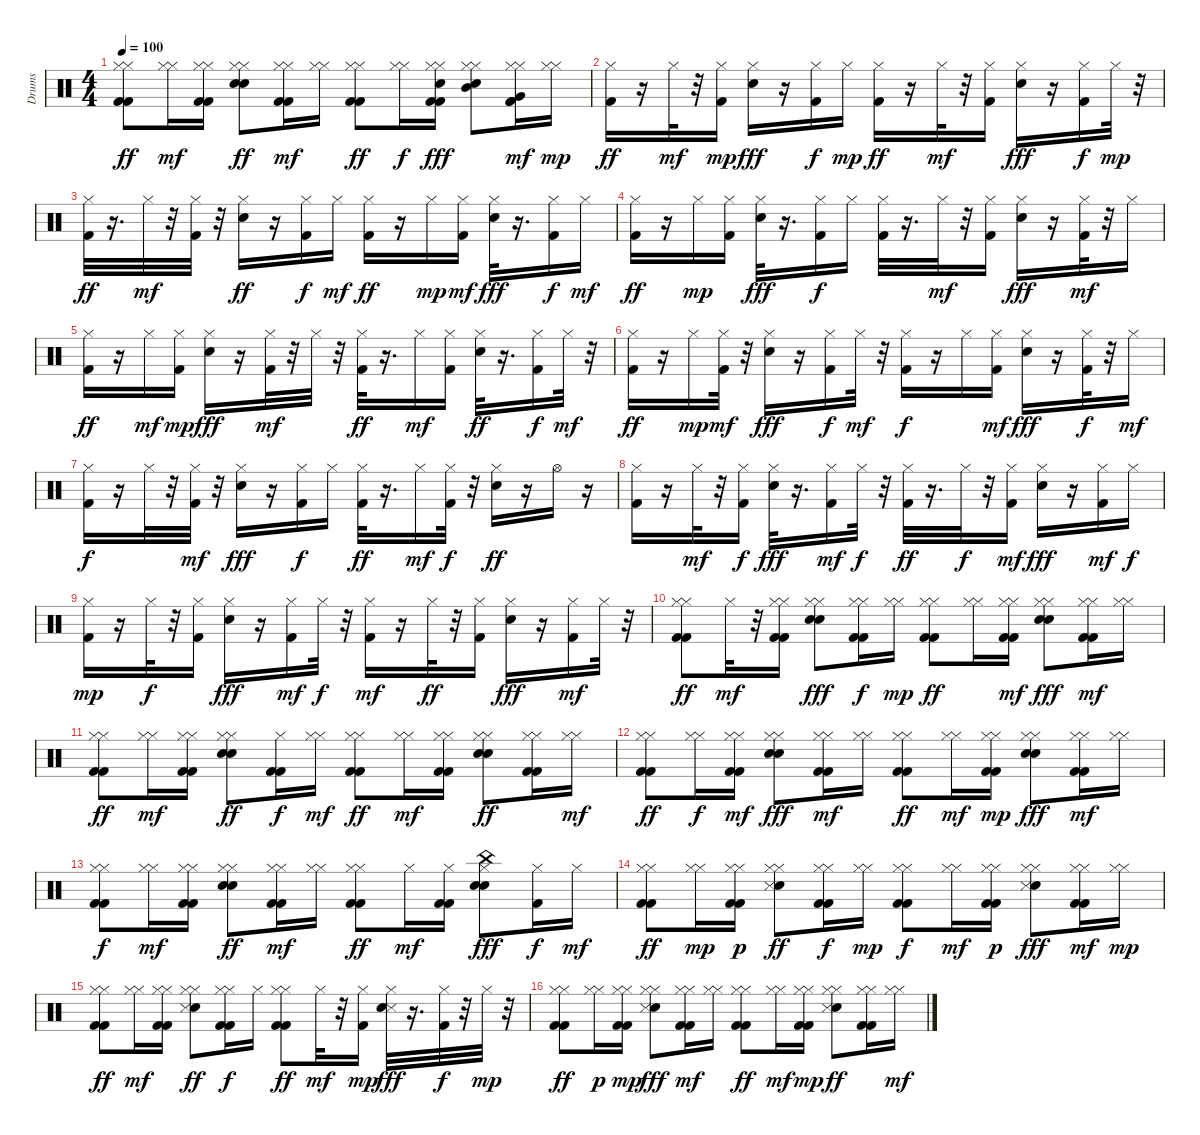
\track ("Drums" "Drums") {instrument percussion}
\staff {score}
\articulation defaults
\ts (4 4)
\tempo 100
\clef neutral
\ks c
("Hi-Hat (closed)" "Kick (hit) 2" "Kick (hit) 2" "Hi-Hat (closed)").8{dy ff} ("Hi-Hat (closed)" "Hi-Hat (closed)").16{dy mf} ("Kick (hit) 2" "Hi-Hat (closed)" "Kick (hit) 2" "Hi-Hat (closed)").16 ("Hi-Hat (closed)" "Snare (hit) 2" "Hi-Hat (closed)" "Snare (hit) 2").8{dy ff} ("Hi-Hat (closed)" "Kick (hit) 2" "Kick (hit) 2" "Hi-Hat (closed)").16{dy mf} ("Hi-Hat (closed)" "Hi-Hat (closed)").16 ("Hi-Hat (closed)" "Kick (hit) 2" "Kick (hit) 2" "Hi-Hat (closed)").8{dy ff} ("Hi-Hat (closed)" "Hi-Hat (closed)").16{dy f} ("Hi-Hat (closed)" "Kick (hit) 2" "Kick (hit) 2" "Hi-Hat (closed)" "Snare (hit) 2").16{dy fff} ("Hi-Hat (closed)" "Hi-Hat (closed)" "Mid Tom (hit)" "Snare (hit) 2").8 ("Kick (hit) 2" "Hi-Hat (closed)" "Kick (hit) 2" "Hi-Hat (closed)" "Very Low Tom (hit)").16{dy mf} ("Hi-Hat (closed)" "Hi-Hat (closed)").16{dy mp} |
("Hi-Hat (closed)" "Kick (hit) 2").16{dy ff} r.16 "Hi-Hat (closed)".32{dy mf} r.32 ("Hi-Hat (closed)" "Kick (hit) 2").16{dy mp} ("Hi-Hat (closed)" "Snare (hit) 2").16{dy fff} r.16 ("Kick (hit) 2" "Hi-Hat (closed)").16{dy f} "Hi-Hat (closed)".16{dy mp} ("Kick (hit) 2" "Hi-Hat (closed)").16{dy ff} r.16 "Hi-Hat (closed)".32{dy mf} r.32 ("Kick (hit) 2" "Hi-Hat (closed)").16 ("Hi-Hat (closed)" "Snare (hit) 2").16{dy fff} r.16 ("Kick (hit) 2" "Hi-Hat (closed)").16{dy f} "Hi-Hat (closed)".32{dy mp} r.32 |
("Hi-Hat (closed)" "Kick (hit) 2").32{dy ff} r.16{d} "Hi-Hat (closed)".32{dy mf} r.32 ("Kick (hit) 2" "Hi-Hat (closed)").32 r.32 ("Hi-Hat (closed)" "Snare (hit) 2").16{dy ff} r.16 ("Kick (hit) 2" "Hi-Hat (closed)").16{dy f} "Hi-Hat (closed)".16{dy mf} ("Hi-Hat (closed)" "Kick (hit) 2").16{dy ff} r.16 "Hi-Hat (closed)".16{dy mp} ("Kick (hit) 2" "Hi-Hat (closed)").16{dy mf} ("Hi-Hat (closed)" "Snare (hit) 2").32{dy fff} r.16{d} ("Kick (hit) 2" "Hi-Hat (closed)").16{dy f} "Hi-Hat (closed)".16{dy mf} |
("Hi-Hat (closed)" "Kick (hit) 2").16{dy ff} r.16 "Hi-Hat (closed)".16{dy mp} ("Kick (hit) 2" "Hi-Hat (closed)").16 ("Hi-Hat (closed)" "Snare (hit) 2").32{dy fff} r.16{d} ("Kick (hit) 2" "Hi-Hat (closed)").16{dy f} "Hi-Hat (closed)".16 ("Hi-Hat (closed)" "Kick (hit) 2").32 r.16{d} "Hi-Hat (closed)".32{dy mf} r.32 ("Hi-Hat (closed)" "Kick (hit) 2").16 ("Hi-Hat (closed)" "Snare (hit) 2").16{dy fff} r.16 ("Kick (hit) 2" "Hi-Hat (closed)").32{dy mf} r.32 "Hi-Hat (closed)".16 |
("Kick (hit) 2" "Hi-Hat (closed)").16{dy ff} r.16 "Hi-Hat (closed)".16{dy mf} ("Hi-Hat (closed)" "Kick (hit) 2").16{dy mp} ("Hi-Hat (closed)" "Snare (hit) 2").16{dy fff} r.16 ("Kick (hit) 2" "Hi-Hat (closed)").32{dy mf} r.32 "Hi-Hat (closed)".32 r.32 ("Kick (hit) 2" "Hi-Hat (closed)").32{dy ff} r.16{d} "Hi-Hat (closed)".16{dy mf} ("Kick (hit) 2" "Hi-Hat (closed)").16 ("Snare (hit) 2" "Hi-Hat (closed)").32{dy ff} r.16{d} ("Kick (hit) 2" "Hi-Hat (closed)").16{dy f} "Hi-Hat (closed)".32{dy mf} r.32 |
("Hi-Hat (closed)" "Kick (hit) 2").16{dy ff} r.16 "Hi-Hat (closed)".16{dy mp} ("Kick (hit) 2" "Hi-Hat (closed)").32{dy mf} r.32 ("Hi-Hat (closed)" "Snare (hit) 2").16{dy fff} r.16 ("Kick (hit) 2" "Hi-Hat (closed)").16{dy f} "Hi-Hat (closed)".32{dy mf} r.32 ("Hi-Hat (closed)" "Kick (hit) 2").16{dy f} r.16 "Hi-Hat (closed)".16 ("Kick (hit) 2" "Hi-Hat (closed)").16{dy mf} ("Hi-Hat (closed)" "Snare (hit) 2").16{dy fff} r.16 ("Kick (hit) 2" "Hi-Hat (closed)").32{dy f} r.32 "Hi-Hat (closed)".16{dy mf} |
("Kick (hit) 2" "Hi-Hat (closed)").16{dy f} r.16 "Hi-Hat (closed)".32 r.32 ("Hi-Hat (closed)" "Kick (hit) 2").32{dy mf} r.32 ("Hi-Hat (closed)" "Snare (hit) 2").16{dy fff} r.16 ("Hi-Hat (closed)" "Kick (hit) 2").16{dy f} "Hi-Hat (closed)".16 ("Kick (hit) 2" "Hi-Hat (closed)").32{dy ff} r.16{d} "Hi-Hat (closed)".16{dy mf} ("Hi-Hat (closed)" "Kick (hit) 2").32{dy f} r.32 ("Hi-Hat (closed)" "Snare (hit) 2").16{dy ff} r.16 "Hi-Hat (open)".16 r.16 |
("Hi-Hat (closed)" "Kick (hit) 2").16 r.16 "Hi-Hat (closed)".32{dy mf} r.32 ("Kick (hit) 2" "Hi-Hat (closed)").16{dy f} ("Hi-Hat (closed)" "Snare (hit) 2").32{dy fff} r.16{d} ("Kick (hit) 2" "Hi-Hat (closed)").16{dy mf} "Hi-Hat (closed)".32{dy f} r.32 ("Kick (hit) 2" "Hi-Hat (closed)").32{dy ff} r.16{d} "Hi-Hat (closed)".32{dy f} r.32 ("Kick (hit) 2" "Hi-Hat (closed)").16{dy mf} ("Hi-Hat (closed)" "Snare (hit) 2").16{dy fff} r.16 ("Kick (hit) 2" "Hi-Hat (closed)").16{dy mf} "Hi-Hat (closed)".16{dy f} |
("Kick (hit) 2" "Hi-Hat (closed)").16{dy mp} r.16 "Hi-Hat (closed)".32{dy f} r.32 ("Kick (hit) 2" "Hi-Hat (closed)").16 ("Hi-Hat (closed)" "Snare (hit) 2").16{dy fff} r.16 ("Kick (hit) 2" "Hi-Hat (closed)").16{dy mf} "Hi-Hat (closed)".32{dy f} r.32 ("Hi-Hat (closed)" "Kick (hit) 2").16{dy mf} r.16 "Hi-Hat (closed)".32{dy ff} r.32 ("Kick (hit) 2" "Hi-Hat (closed)").16 ("Hi-Hat (closed)" "Snare (hit) 2").16{dy fff} r.16 ("Kick (hit) 2" "Hi-Hat (closed)").16{dy mf} "Hi-Hat (closed)".32 r.32 |
("Kick (hit) 2" "Hi-Hat (closed)" "Hi-Hat (closed)" "Kick (hit) 2").8{dy ff} "Hi-Hat (closed)".32{dy mf} r.32 ("Hi-Hat (closed)" "Kick (hit) 2" "Kick (hit) 2" "Hi-Hat (closed)").16 ("Snare (hit) 2" "Hi-Hat (closed)" "Hi-Hat (closed)" "Snare (hit) 2").8{dy fff} ("Kick (hit) 2" "Hi-Hat (closed)" "Kick (hit) 2" "Hi-Hat (closed)").16{dy f} ("Hi-Hat (closed)" "Hi-Hat (closed)").16{dy mp} ("Kick (hit) 2" "Hi-Hat (closed)" "Kick (hit) 2" "Hi-Hat (closed)").8{dy ff} ("Hi-Hat (closed)" "Hi-Hat (closed)").16 ("Kick (hit) 2" "Hi-Hat (closed)" "Hi-Hat (closed)" "Kick (hit) 2").16{dy mf} ("Hi-Hat (closed)" "Hi-Hat (closed)" "Snare (hit) 2" "Snare (hit) 2").8{dy fff} ("Kick (hit) 2" "Hi-Hat (closed)" "Kick (hit) 2" "Hi-Hat (closed)").16{dy mf} ("Hi-Hat (closed)" "Hi-Hat (closed)").16 |
("Kick (hit) 2" "Hi-Hat (closed)" "Kick (hit) 2" "Hi-Hat (closed)").8{dy ff} ("Hi-Hat (closed)" "Hi-Hat (closed)").16{dy mf} ("Kick (hit) 2" "Hi-Hat (closed)" "Hi-Hat (closed)" "Kick (hit) 2").16 ("Hi-Hat (closed)" "Snare (hit) 2" "Snare (hit) 2" "Hi-Hat (closed)").8{dy ff} ("Kick (hit) 2" "Hi-Hat (closed)" "Kick (hit) 2").16{dy f} ("Hi-Hat (closed)" "Hi-Hat (closed)").16{dy mf} ("Kick (hit) 2" "Hi-Hat (closed)" "Kick (hit) 2" "Hi-Hat (closed)").8{dy ff} ("Hi-Hat (closed)" "Hi-Hat (closed)").16{dy mf} ("Kick (hit) 2" "Kick (hit) 2" "Hi-Hat (closed)" "Hi-Hat (closed)").16 ("Hi-Hat (closed)" "Hi-Hat (closed)" "Snare (hit) 2" "Snare (hit) 2").8{dy ff} ("Hi-Hat (closed)" "Kick (hit) 2" "Kick (hit) 2" "Hi-Hat (closed)").16 ("Hi-Hat (closed)" "Hi-Hat (closed)").16{dy mf} |
("Hi-Hat (closed)" "Kick (hit) 2" "Kick (hit) 2" "Hi-Hat (closed)").8{dy ff} ("Hi-Hat (closed)" "Hi-Hat (closed)").16{dy f} ("Kick (hit) 2" "Hi-Hat (closed)" "Hi-Hat (closed)" "Kick (hit) 2").16{dy mf} ("Hi-Hat (closed)" "Hi-Hat (closed)" "Snare (hit) 2" "Snare (hit) 2").8{dy fff} ("Kick (hit) 2" "Hi-Hat (closed)" "Kick (hit) 2" "Hi-Hat (closed)").16{dy mf} ("Hi-Hat (closed)" "Hi-Hat (closed)").16 ("Hi-Hat (closed)" "Kick (hit) 2" "Kick (hit) 2" "Hi-Hat (closed)").8{dy ff} ("Hi-Hat (closed)" "Hi-Hat (closed)").16{dy mf} ("Kick (hit) 2" "Hi-Hat (closed)" "Kick (hit) 2" "Hi-Hat (closed)").16{dy mp} ("Hi-Hat (closed)" "Hi-Hat (closed)" "Snare (hit) 2" "Snare (hit) 2").8{dy fff} ("Kick (hit) 2" "Hi-Hat (closed)" "Kick (hit) 2" "Hi-Hat (closed)").16{dy mf} ("Hi-Hat (closed)" "Hi-Hat (closed)").16 |
("Hi-Hat (closed)" "Kick (hit) 2" "Kick (hit) 2" "Hi-Hat (closed)").8{dy f} ("Hi-Hat (closed)" "Hi-Hat (closed)").16{dy mf} ("Kick (hit) 2" "Hi-Hat (closed)" "Kick (hit) 2" "Hi-Hat (closed)").16 ("Hi-Hat (closed)" "Snare (hit) 2" "Hi-Hat (closed)" "Snare (hit) 2").8{dy ff} ("Kick (hit) 2" "Hi-Hat (closed)" "Kick (hit) 2" "Hi-Hat (closed)").16{dy mf} ("Hi-Hat (closed)" "Hi-Hat (closed)").16 ("Kick (hit) 2" "Hi-Hat (closed)" "Hi-Hat (closed)" "Kick (hit) 2").8{dy ff} "Hi-Hat (closed)".16{dy mf} ("Kick (hit) 2" "Hi-Hat (closed)" "Kick (hit) 2").16 ("Hi-Hat (closed)" "China (hit)" "Snare (hit) 2" "Snare (hit) 2").8{dy fff} ("Kick (hit) 2" "Hi-Hat (closed)").16{dy f} "Hi-Hat (closed)".16{dy mf} |
("Kick (hit) 2" "Hi-Hat (closed)" "Kick (hit) 2" "Hi-Hat (closed)").8{dy ff} ("Hi-Hat (closed)" "Hi-Hat (closed)").16{dy mp} ("Kick (hit) 2" "Hi-Hat (closed)" "Kick (hit) 2" "Hi-Hat (closed)").16{dy p} ("Hi-Hat (closed)" "Hi-Hat (closed)" "Snare (hit) 2" "Snare (side stick) 3").8{dy ff} ("Kick (hit) 2" "Hi-Hat (closed)" "Hi-Hat (closed)" "Kick (hit) 2").16{dy f} ("Hi-Hat (closed)" "Hi-Hat (closed)").16{dy mp} ("Kick (hit) 2" "Hi-Hat (closed)" "Hi-Hat (closed)" "Kick (hit) 2").8{dy f} ("Hi-Hat (closed)" "Hi-Hat (closed)").16{dy mf} ("Kick (hit) 2" "Hi-Hat (closed)" "Kick (hit) 2" "Hi-Hat (closed)").16{dy p} ("Hi-Hat (closed)" "Hi-Hat (closed)" "Snare (hit) 2" "Snare (side stick) 3").8{dy fff} ("Kick (hit) 2" "Hi-Hat (closed)" "Kick (hit) 2" "Hi-Hat (closed)").16{dy mf} ("Hi-Hat (closed)" "Hi-Hat (closed)").16{dy mp} |
("Kick (hit) 2" "Hi-Hat (closed)" "Kick (hit) 2" "Hi-Hat (closed)").8{dy ff} ("Hi-Hat (closed)" "Hi-Hat (closed)").16{dy mf} ("Kick (hit) 2" "Kick (hit) 2" "Hi-Hat (closed)" "Hi-Hat (closed)").16 ("Hi-Hat (closed)" "Hi-Hat (closed)" "Snare (hit) 2" "Snare (side stick) 3").8{dy ff} ("Kick (hit) 2" "Hi-Hat (closed)" "Hi-Hat (closed)" "Kick (hit) 2").16{dy f} "Hi-Hat (closed)".16 ("Hi-Hat (closed)" "Kick (hit) 2" "Kick (hit) 2" "Hi-Hat (closed)").8{dy ff} "Hi-Hat (closed)".32{dy mf} r.32 ("Kick (hit) 2" "Hi-Hat (closed)").16{dy mp} ("Snare (side stick) 3" "Hi-Hat (closed)" "Snare (hit) 2").32{dy fff} r.16{d} ("Kick (hit) 2" "Hi-Hat (closed)").32{dy f} r.32 "Hi-Hat (closed)".32{dy mp} r.32 |
("Kick (hit) 2" "Hi-Hat (closed)" "Kick (hit) 2" "Hi-Hat (closed)").8{dy ff} ("Hi-Hat (closed)" "Hi-Hat (closed)").16{dy p} ("Hi-Hat (closed)" "Kick (hit) 2" "Kick (hit) 2" "Hi-Hat (closed)").16{dy mp} ("Hi-Hat (closed)" "Hi-Hat (closed)" "Snare (hit) 2" "Snare (side stick) 3").8{dy fff} ("Kick (hit) 2" "Hi-Hat (closed)" "Kick (hit) 2" "Hi-Hat (closed)").16{dy mf} ("Hi-Hat (closed)" "Hi-Hat (closed)").16 ("Kick (hit) 2" "Kick (hit) 2" "Hi-Hat (closed)" "Hi-Hat (closed)").8{dy ff} ("Hi-Hat (closed)" "Hi-Hat (closed)").16{dy mf} ("Kick (hit) 2" "Hi-Hat (closed)" "Hi-Hat (closed)" "Kick (hit) 2").16{dy mp} ("Hi-Hat (closed)" "Hi-Hat (closed)" "Snare (hit) 2" "Snare (side stick) 3").8{dy ff} ("Kick (hit) 2" "Hi-Hat (closed)" "Kick (hit) 2" "Hi-Hat (closed)").16 ("Hi-Hat (closed)" "Hi-Hat (closed)").16{dy mf}
